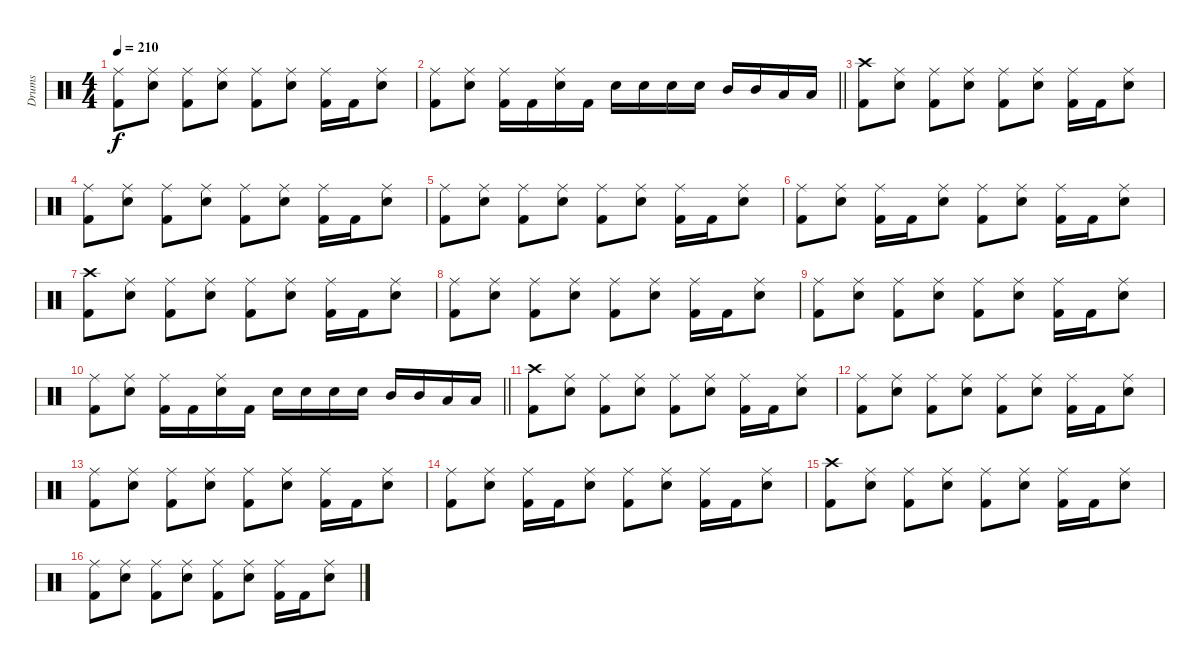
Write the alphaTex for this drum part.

\track ("Drums" "Drums") {instrument percussion}
\staff {score}
\articulation defaults
\ts (4 4)
\tempo 210
\clef neutral
\ks c
("Ride (middle)" "Kick (hit) 2").8{dy f} ("Ride (middle)" "Snare (hit) 2").8 ("Ride (middle)" "Kick (hit) 2").8 ("Ride (middle)" "Snare (hit) 2").8 ("Ride (middle)" "Kick (hit) 2").8 ("Ride (middle)" "Snare (hit) 2").8 ("Ride (middle)" "Kick (hit) 2").16 "Kick (hit) 2".16 ("Ride (middle)" "Snare (hit) 2").8 |
\barLineRight lightlight
("Ride (middle)" "Kick (hit) 2").8 ("Ride (middle)" "Snare (hit) 2").8 ("Ride (middle)" "Kick (hit) 2").16 "Kick (hit) 2".16 ("Ride (middle)" "Snare (hit) 2").16 "Kick (hit) 2".16 "Snare (hit) 2".16 "Snare (hit) 2".16 "Snare (hit) 2".16 "Snare (hit) 2".16 "Mid Tom (hit)".16 "Mid Tom (hit)".16 "Low Tom (hit)".16 "Low Tom (hit)".16 |
("Crash high (hit)" "Kick (hit) 2").8 ("Ride (middle)" "Snare (hit) 2").8 ("Ride (middle)" "Kick (hit) 2").8 ("Ride (middle)" "Snare (hit) 2").8 ("Ride (middle)" "Kick (hit) 2").8 ("Ride (middle)" "Snare (hit) 2").8 ("Ride (middle)" "Kick (hit) 2").16 "Kick (hit) 2".16 ("Ride (middle)" "Snare (hit) 2").8 |
("Ride (middle)" "Kick (hit) 2").8 ("Ride (middle)" "Snare (hit) 2").8 ("Ride (middle)" "Kick (hit) 2").8 ("Ride (middle)" "Snare (hit) 2").8 ("Ride (middle)" "Kick (hit) 2").8 ("Ride (middle)" "Snare (hit) 2").8 ("Ride (middle)" "Kick (hit) 2").16 "Kick (hit) 2".16 ("Ride (middle)" "Snare (hit) 2").8 |
("Ride (middle)" "Kick (hit) 2").8 ("Ride (middle)" "Snare (hit) 2").8 ("Ride (middle)" "Kick (hit) 2").8 ("Ride (middle)" "Snare (hit) 2").8 ("Ride (middle)" "Kick (hit) 2").8 ("Ride (middle)" "Snare (hit) 2").8 ("Ride (middle)" "Kick (hit) 2").16 "Kick (hit) 2".16 ("Ride (middle)" "Snare (hit) 2").8 |
("Ride (middle)" "Kick (hit) 2").8 ("Ride (middle)" "Snare (hit) 2").8 ("Ride (middle)" "Kick (hit) 2").16 "Kick (hit) 2".16 ("Ride (middle)" "Snare (hit) 2").8 ("Ride (middle)" "Kick (hit) 2").8 ("Ride (middle)" "Snare (hit) 2").8 ("Ride (middle)" "Kick (hit) 2").16 "Kick (hit) 2".16 ("Ride (middle)" "Snare (hit) 2").8 |
("Crash high (hit)" "Kick (hit) 2").8 ("Ride (middle)" "Snare (hit) 2").8 ("Ride (middle)" "Kick (hit) 2").8 ("Ride (middle)" "Snare (hit) 2").8 ("Ride (middle)" "Kick (hit) 2").8 ("Ride (middle)" "Snare (hit) 2").8 ("Ride (middle)" "Kick (hit) 2").16 "Kick (hit) 2".16 ("Ride (middle)" "Snare (hit) 2").8 |
("Ride (middle)" "Kick (hit) 2").8 ("Ride (middle)" "Snare (hit) 2").8 ("Ride (middle)" "Kick (hit) 2").8 ("Ride (middle)" "Snare (hit) 2").8 ("Ride (middle)" "Kick (hit) 2").8 ("Ride (middle)" "Snare (hit) 2").8 ("Ride (middle)" "Kick (hit) 2").16 "Kick (hit) 2".16 ("Ride (middle)" "Snare (hit) 2").8 |
("Ride (middle)" "Kick (hit) 2").8 ("Ride (middle)" "Snare (hit) 2").8 ("Ride (middle)" "Kick (hit) 2").8 ("Ride (middle)" "Snare (hit) 2").8 ("Ride (middle)" "Kick (hit) 2").8 ("Ride (middle)" "Snare (hit) 2").8 ("Ride (middle)" "Kick (hit) 2").16 "Kick (hit) 2".16 ("Ride (middle)" "Snare (hit) 2").8 |
\barLineRight lightlight
("Ride (middle)" "Kick (hit) 2").8 ("Ride (middle)" "Snare (hit) 2").8 ("Ride (middle)" "Kick (hit) 2").16 "Kick (hit) 2".16 ("Ride (middle)" "Snare (hit) 2").16 "Kick (hit) 2".16 "Snare (hit) 2".16 "Snare (hit) 2".16 "Snare (hit) 2".16 "Snare (hit) 2".16 "Mid Tom (hit)".16 "Mid Tom (hit)".16 "Low Tom (hit)".16 "Low Tom (hit)".16 |
\section ("" "")
("Crash high (hit)" "Kick (hit) 2").8 ("Ride (middle)" "Snare (hit) 2").8 ("Ride (middle)" "Kick (hit) 2").8 ("Ride (middle)" "Snare (hit) 2").8 ("Ride (middle)" "Kick (hit) 2").8 ("Ride (middle)" "Snare (hit) 2").8 ("Ride (middle)" "Kick (hit) 2").16 "Kick (hit) 2".16 ("Ride (middle)" "Snare (hit) 2").8 |
("Ride (middle)" "Kick (hit) 2").8 ("Ride (middle)" "Snare (hit) 2").8 ("Ride (middle)" "Kick (hit) 2").8 ("Ride (middle)" "Snare (hit) 2").8 ("Ride (middle)" "Kick (hit) 2").8 ("Ride (middle)" "Snare (hit) 2").8 ("Ride (middle)" "Kick (hit) 2").16 "Kick (hit) 2".16 ("Ride (middle)" "Snare (hit) 2").8 |
("Ride (middle)" "Kick (hit) 2").8 ("Ride (middle)" "Snare (hit) 2").8 ("Ride (middle)" "Kick (hit) 2").8 ("Ride (middle)" "Snare (hit) 2").8 ("Ride (middle)" "Kick (hit) 2").8 ("Ride (middle)" "Snare (hit) 2").8 ("Ride (middle)" "Kick (hit) 2").16 "Kick (hit) 2".16 ("Ride (middle)" "Snare (hit) 2").8 |
("Ride (middle)" "Kick (hit) 2").8 ("Ride (middle)" "Snare (hit) 2").8 ("Ride (middle)" "Kick (hit) 2").16 "Kick (hit) 2".16 ("Ride (middle)" "Snare (hit) 2").8 ("Ride (middle)" "Kick (hit) 2").8 ("Ride (middle)" "Snare (hit) 2").8 ("Ride (middle)" "Kick (hit) 2").16 "Kick (hit) 2".16 ("Ride (middle)" "Snare (hit) 2").8 |
("Crash high (hit)" "Kick (hit) 2").8 ("Ride (middle)" "Snare (hit) 2").8 ("Ride (middle)" "Kick (hit) 2").8 ("Ride (middle)" "Snare (hit) 2").8 ("Ride (middle)" "Kick (hit) 2").8 ("Ride (middle)" "Snare (hit) 2").8 ("Ride (middle)" "Kick (hit) 2").16 "Kick (hit) 2".16 ("Ride (middle)" "Snare (hit) 2").8 |
("Ride (middle)" "Kick (hit) 2").8 ("Ride (middle)" "Snare (hit) 2").8 ("Ride (middle)" "Kick (hit) 2").8 ("Ride (middle)" "Snare (hit) 2").8 ("Ride (middle)" "Kick (hit) 2").8 ("Ride (middle)" "Snare (hit) 2").8 ("Ride (middle)" "Kick (hit) 2").16 "Kick (hit) 2".16 ("Ride (middle)" "Snare (hit) 2").8
